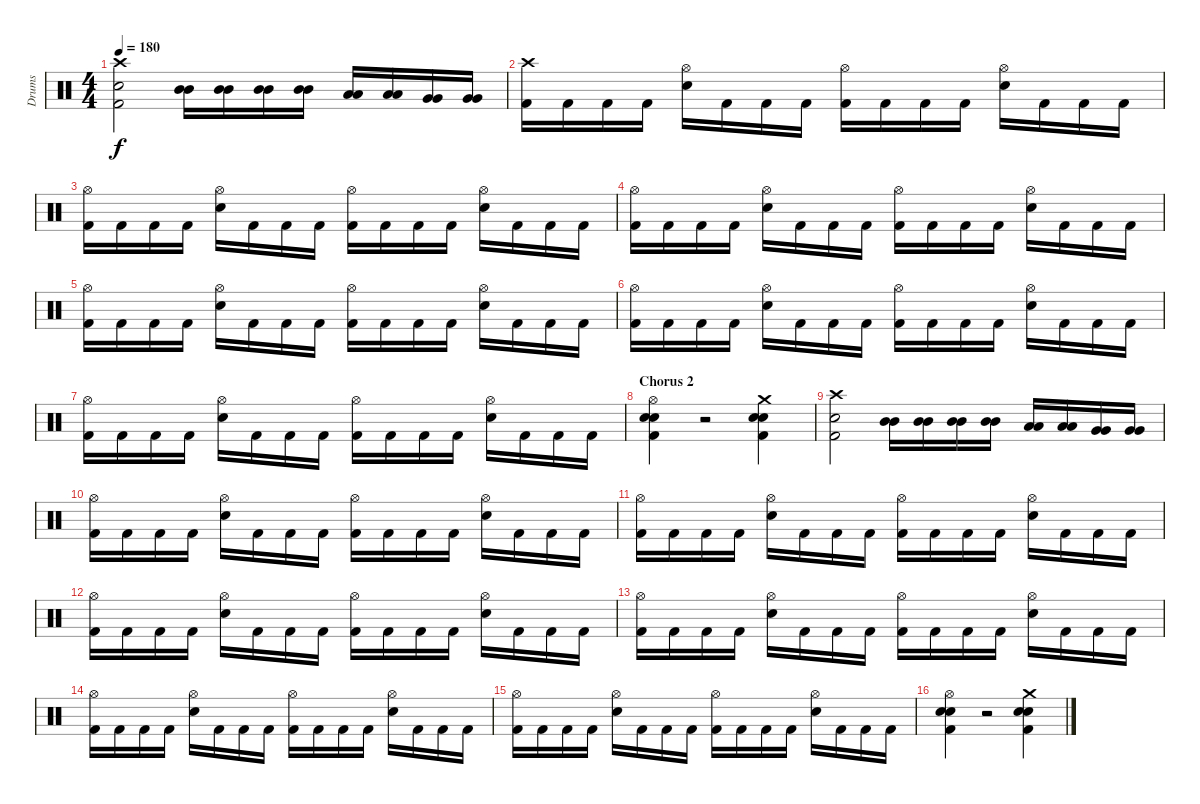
\track ("Drums" "Drums") {instrument percussion}
\staff {score}
\articulation defaults
\ts (4 4)
\tempo 180
\clef neutral
\ks c
("Crash high (hit)" "Snare (hit) 2" "Kick (hit) 2").2{dy f} ("Mid Tom (hit)" "Mid Tom (hit)").16 ("Mid Tom (hit)" "Mid Tom (hit)").16 ("Mid Tom (hit)" "Mid Tom (hit)").16 ("Mid Tom (hit)" "Mid Tom (hit)").16 ("Low Tom (hit)" "Low Tom (hit)").16 ("Low Tom (hit)" "Low Tom (hit)").16 ("Very Low Tom (hit)" "Very Low Tom (hit)").16 ("Very Low Tom (hit)" "Very Low Tom (hit)").16 |
("Crash high (hit)" "Kick (hit) 2").16 "Kick (hit) 2".16 "Kick (hit) 2".16 "Kick (hit) 2".16 ("Hi-Hat (open)" "Snare (hit) 2").16 "Kick (hit) 2".16 "Kick (hit) 2".16 "Kick (hit) 2".16 ("Hi-Hat (open)" "Kick (hit) 2").16 "Kick (hit) 2".16 "Kick (hit) 2".16 "Kick (hit) 2".16 ("Hi-Hat (open)" "Snare (hit) 2").16 "Kick (hit) 2".16 "Kick (hit) 2".16 "Kick (hit) 2".16 |
("Hi-Hat (open)" "Kick (hit) 2").16 "Kick (hit) 2".16 "Kick (hit) 2".16 "Kick (hit) 2".16 ("Hi-Hat (open)" "Snare (hit) 2").16 "Kick (hit) 2".16 "Kick (hit) 2".16 "Kick (hit) 2".16 ("Hi-Hat (open)" "Kick (hit) 2").16 "Kick (hit) 2".16 "Kick (hit) 2".16 "Kick (hit) 2".16 ("Hi-Hat (open)" "Snare (hit) 2").16 "Kick (hit) 2".16 "Kick (hit) 2".16 "Kick (hit) 2".16 |
("Hi-Hat (open)" "Kick (hit) 2").16 "Kick (hit) 2".16 "Kick (hit) 2".16 "Kick (hit) 2".16 ("Hi-Hat (open)" "Snare (hit) 2").16 "Kick (hit) 2".16 "Kick (hit) 2".16 "Kick (hit) 2".16 ("Hi-Hat (open)" "Kick (hit) 2").16 "Kick (hit) 2".16 "Kick (hit) 2".16 "Kick (hit) 2".16 ("Hi-Hat (open)" "Snare (hit) 2").16 "Kick (hit) 2".16 "Kick (hit) 2".16 "Kick (hit) 2".16 |
("Hi-Hat (open)" "Kick (hit) 2").16 "Kick (hit) 2".16 "Kick (hit) 2".16 "Kick (hit) 2".16 ("Hi-Hat (open)" "Snare (hit) 2").16 "Kick (hit) 2".16 "Kick (hit) 2".16 "Kick (hit) 2".16 ("Hi-Hat (open)" "Kick (hit) 2").16 "Kick (hit) 2".16 "Kick (hit) 2".16 "Kick (hit) 2".16 ("Hi-Hat (open)" "Snare (hit) 2").16 "Kick (hit) 2".16 "Kick (hit) 2".16 "Kick (hit) 2".16 |
("Hi-Hat (open)" "Kick (hit) 2").16 "Kick (hit) 2".16 "Kick (hit) 2".16 "Kick (hit) 2".16 ("Hi-Hat (open)" "Snare (hit) 2").16 "Kick (hit) 2".16 "Kick (hit) 2".16 "Kick (hit) 2".16 ("Hi-Hat (open)" "Kick (hit) 2").16 "Kick (hit) 2".16 "Kick (hit) 2".16 "Kick (hit) 2".16 ("Hi-Hat (open)" "Snare (hit) 2").16 "Kick (hit) 2".16 "Kick (hit) 2".16 "Kick (hit) 2".16 |
("Hi-Hat (open)" "Kick (hit) 2").16 "Kick (hit) 2".16 "Kick (hit) 2".16 "Kick (hit) 2".16 ("Hi-Hat (open)" "Snare (hit) 2").16 "Kick (hit) 2".16 "Kick (hit) 2".16 "Kick (hit) 2".16 ("Hi-Hat (open)" "Kick (hit) 2").16 "Kick (hit) 2".16 "Kick (hit) 2".16 "Kick (hit) 2".16 ("Hi-Hat (open)" "Snare (hit) 2").16 "Kick (hit) 2".16 "Kick (hit) 2".16 "Kick (hit) 2".16 |
\section ("" "Chorus 2")
("Hi-Hat (open)" "Snare (hit) 2" "Snare (hit) 2" "Kick (hit) 2").4 r.2 ("Crash medium (hit)" "Snare (hit) 2" "Snare (hit) 2" "Kick (hit) 2").4 |
("Crash high (hit)" "Snare (hit) 2" "Kick (hit) 2").2 ("Mid Tom (hit)" "Mid Tom (hit)").16 ("Mid Tom (hit)" "Mid Tom (hit)").16 ("Mid Tom (hit)" "Mid Tom (hit)").16 ("Mid Tom (hit)" "Mid Tom (hit)").16 ("Low Tom (hit)" "Low Tom (hit)").16 ("Low Tom (hit)" "Low Tom (hit)").16 ("Very Low Tom (hit)" "Very Low Tom (hit)").16 ("Very Low Tom (hit)" "Very Low Tom (hit)").16 |
("Hi-Hat (open)" "Kick (hit) 2").16 "Kick (hit) 2".16 "Kick (hit) 2".16 "Kick (hit) 2".16 ("Hi-Hat (open)" "Snare (hit) 2").16 "Kick (hit) 2".16 "Kick (hit) 2".16 "Kick (hit) 2".16 ("Hi-Hat (open)" "Kick (hit) 2").16 "Kick (hit) 2".16 "Kick (hit) 2".16 "Kick (hit) 2".16 ("Hi-Hat (open)" "Snare (hit) 2").16 "Kick (hit) 2".16 "Kick (hit) 2".16 "Kick (hit) 2".16 |
("Hi-Hat (open)" "Kick (hit) 2").16 "Kick (hit) 2".16 "Kick (hit) 2".16 "Kick (hit) 2".16 ("Hi-Hat (open)" "Snare (hit) 2").16 "Kick (hit) 2".16 "Kick (hit) 2".16 "Kick (hit) 2".16 ("Hi-Hat (open)" "Kick (hit) 2").16 "Kick (hit) 2".16 "Kick (hit) 2".16 "Kick (hit) 2".16 ("Hi-Hat (open)" "Snare (hit) 2").16 "Kick (hit) 2".16 "Kick (hit) 2".16 "Kick (hit) 2".16 |
("Hi-Hat (open)" "Kick (hit) 2").16 "Kick (hit) 2".16 "Kick (hit) 2".16 "Kick (hit) 2".16 ("Hi-Hat (open)" "Snare (hit) 2").16 "Kick (hit) 2".16 "Kick (hit) 2".16 "Kick (hit) 2".16 ("Hi-Hat (open)" "Kick (hit) 2").16 "Kick (hit) 2".16 "Kick (hit) 2".16 "Kick (hit) 2".16 ("Hi-Hat (open)" "Snare (hit) 2").16 "Kick (hit) 2".16 "Kick (hit) 2".16 "Kick (hit) 2".16 |
("Hi-Hat (open)" "Kick (hit) 2").16 "Kick (hit) 2".16 "Kick (hit) 2".16 "Kick (hit) 2".16 ("Hi-Hat (open)" "Snare (hit) 2").16 "Kick (hit) 2".16 "Kick (hit) 2".16 "Kick (hit) 2".16 ("Hi-Hat (open)" "Kick (hit) 2").16 "Kick (hit) 2".16 "Kick (hit) 2".16 "Kick (hit) 2".16 ("Hi-Hat (open)" "Snare (hit) 2").16 "Kick (hit) 2".16 "Kick (hit) 2".16 "Kick (hit) 2".16 |
("Hi-Hat (open)" "Kick (hit) 2").16 "Kick (hit) 2".16 "Kick (hit) 2".16 "Kick (hit) 2".16 ("Hi-Hat (open)" "Snare (hit) 2").16 "Kick (hit) 2".16 "Kick (hit) 2".16 "Kick (hit) 2".16 ("Hi-Hat (open)" "Kick (hit) 2").16 "Kick (hit) 2".16 "Kick (hit) 2".16 "Kick (hit) 2".16 ("Hi-Hat (open)" "Snare (hit) 2").16 "Kick (hit) 2".16 "Kick (hit) 2".16 "Kick (hit) 2".16 |
("Hi-Hat (open)" "Kick (hit) 2").16 "Kick (hit) 2".16 "Kick (hit) 2".16 "Kick (hit) 2".16 ("Hi-Hat (open)" "Snare (hit) 2").16 "Kick (hit) 2".16 "Kick (hit) 2".16 "Kick (hit) 2".16 ("Hi-Hat (open)" "Kick (hit) 2").16 "Kick (hit) 2".16 "Kick (hit) 2".16 "Kick (hit) 2".16 ("Hi-Hat (open)" "Snare (hit) 2").16 "Kick (hit) 2".16 "Kick (hit) 2".16 "Kick (hit) 2".16 |
("Hi-Hat (open)" "Snare (hit) 2" "Snare (hit) 2" "Kick (hit) 2").4 r.2 ("Crash medium (hit)" "Snare (hit) 2" "Snare (hit) 2" "Kick (hit) 2").4
